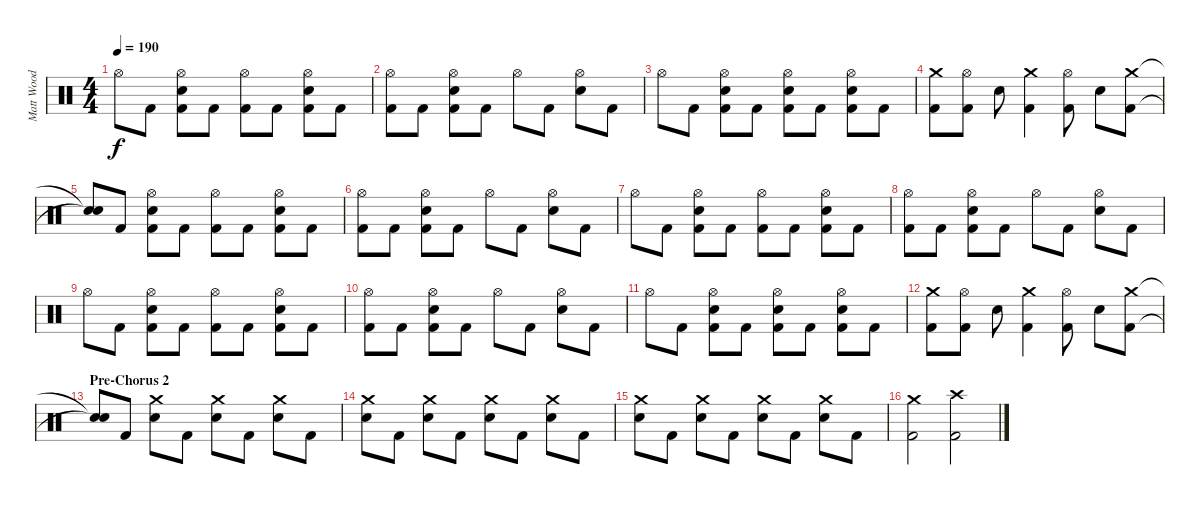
\track ("Matt Wood" "Matt Wood") {instrument percussion}
\staff {score}
\articulation defaults
\ts (4 4)
\tempo 190
\clef neutral
\ks c "Hi-Hat (open)".8{dy f} "Kick (hit) 2".8
("Hi-Hat (open)" "Snare (hit) 2" "Kick (hit) 2").8 "Kick (hit) 2".8 ("Hi-Hat (open)" "Kick (hit) 2").8 "Kick (hit) 2".8 ("Hi-Hat (open)" "Snare (hit) 2" "Kick (hit) 2").8 "Kick (hit) 2".8 |
("Hi-Hat (open)" "Kick (hit) 2").8 "Kick (hit) 2".8 ("Hi-Hat (open)" "Snare (hit) 2" "Kick (hit) 2").8 "Kick (hit) 2".8 "Hi-Hat (open)".8 "Kick (hit) 2".8 ("Hi-Hat (open)" "Snare (hit) 2").8 "Kick (hit) 2".8 |
"Hi-Hat (open)".8 "Kick (hit) 2".8 ("Hi-Hat (open)" "Snare (hit) 2" "Kick (hit) 2").8 "Kick (hit) 2".8 ("Hi-Hat (open)" "Snare (hit) 2" "Kick (hit) 2").8 "Kick (hit) 2".8 ("Hi-Hat (open)" "Snare (hit) 2" "Kick (hit) 2").8 "Kick (hit) 2".8 |
("Crash medium (hit)" "Kick (hit) 2").8 ("Hi-Hat (open)" "Kick (hit) 2").8 "Snare (hit) 2".8 ("Crash medium (hit)" "Kick (hit) 2").4 ("Hi-Hat (open)" "Kick (hit) 2").8 "Snare (hit) 2".8 ("Crash medium (hit)" "Kick (hit) 2").8 |
("Snare (hit)"{t} "Snare (hit)"{t}).8 "Kick (hit) 2".8 ("Hi-Hat (open)" "Snare (hit) 2" "Kick (hit) 2").8 "Kick (hit) 2".8 ("Hi-Hat (open)" "Kick (hit) 2").8 "Kick (hit) 2".8 ("Hi-Hat (open)" "Snare (hit) 2" "Kick (hit) 2").8 "Kick (hit) 2".8 |
("Hi-Hat (open)" "Kick (hit) 2").8 "Kick (hit) 2".8 ("Hi-Hat (open)" "Snare (hit) 2" "Kick (hit) 2").8 "Kick (hit) 2".8 "Hi-Hat (open)".8 "Kick (hit) 2".8 ("Hi-Hat (open)" "Snare (hit) 2").8 "Kick (hit) 2".8 |
"Hi-Hat (open)".8 "Kick (hit) 2".8 ("Hi-Hat (open)" "Snare (hit) 2" "Kick (hit) 2").8 "Kick (hit) 2".8 ("Hi-Hat (open)" "Kick (hit) 2").8 "Kick (hit) 2".8 ("Hi-Hat (open)" "Snare (hit) 2" "Kick (hit) 2").8 "Kick (hit) 2".8 |
("Hi-Hat (open)" "Kick (hit) 2").8 "Kick (hit) 2".8 ("Hi-Hat (open)" "Snare (hit) 2" "Kick (hit) 2").8 "Kick (hit) 2".8 "Hi-Hat (open)".8 "Kick (hit) 2".8 ("Hi-Hat (open)" "Snare (hit) 2").8 "Kick (hit) 2".8 |
"Hi-Hat (open)".8 "Kick (hit) 2".8 ("Hi-Hat (open)" "Snare (hit) 2" "Kick (hit) 2").8 "Kick (hit) 2".8 ("Hi-Hat (open)" "Kick (hit) 2").8 "Kick (hit) 2".8 ("Hi-Hat (open)" "Snare (hit) 2" "Kick (hit) 2").8 "Kick (hit) 2".8 |
("Hi-Hat (open)" "Kick (hit) 2").8 "Kick (hit) 2".8 ("Hi-Hat (open)" "Snare (hit) 2" "Kick (hit) 2").8 "Kick (hit) 2".8 "Hi-Hat (open)".8 "Kick (hit) 2".8 ("Hi-Hat (open)" "Snare (hit) 2").8 "Kick (hit) 2".8 |
"Hi-Hat (open)".8 "Kick (hit) 2".8 ("Hi-Hat (open)" "Snare (hit) 2" "Kick (hit) 2").8 "Kick (hit) 2".8 ("Hi-Hat (open)" "Snare (hit) 2" "Kick (hit) 2").8 "Kick (hit) 2".8 ("Hi-Hat (open)" "Snare (hit) 2" "Kick (hit) 2").8 "Kick (hit) 2".8 |
("Crash medium (hit)" "Kick (hit) 2").8 ("Hi-Hat (open)" "Kick (hit) 2").8 "Snare (hit) 2".8 ("Crash medium (hit)" "Kick (hit) 2").4 ("Hi-Hat (open)" "Kick (hit) 2").8 "Snare (hit) 2".8 ("Crash medium (hit)" "Kick (hit) 2").8 |
\section ("" "Pre-Chorus 2")
("Snare (hit)"{t} "Snare (hit)"{t}).8 "Kick (hit) 2".8 ("Crash medium (hit)" "Snare (hit) 2").8 "Kick (hit) 2".8 ("Crash medium (hit)" "Snare (hit) 2").8 "Kick (hit) 2".8 ("Crash medium (hit)" "Snare (hit) 2").8 "Kick (hit) 2".8 |
("Crash medium (hit)" "Snare (hit) 2").8 "Kick (hit) 2".8 ("Crash medium (hit)" "Snare (hit) 2").8 "Kick (hit) 2".8 ("Crash medium (hit)" "Snare (hit) 2").8 "Kick (hit) 2".8 ("Crash medium (hit)" "Snare (hit) 2").8 "Kick (hit) 2".8 |
("Crash medium (hit)" "Snare (hit) 2").8 "Kick (hit) 2".8 ("Crash medium (hit)" "Snare (hit) 2").8 "Kick (hit) 2".8 ("Crash medium (hit)" "Snare (hit) 2").8 "Kick (hit) 2".8 ("Crash medium (hit)" "Snare (hit) 2").8 "Kick (hit) 2".8 |
("Crash medium (hit)" "Kick (hit) 2").2 ("Crash high (hit)" "Kick (hit) 2").2
